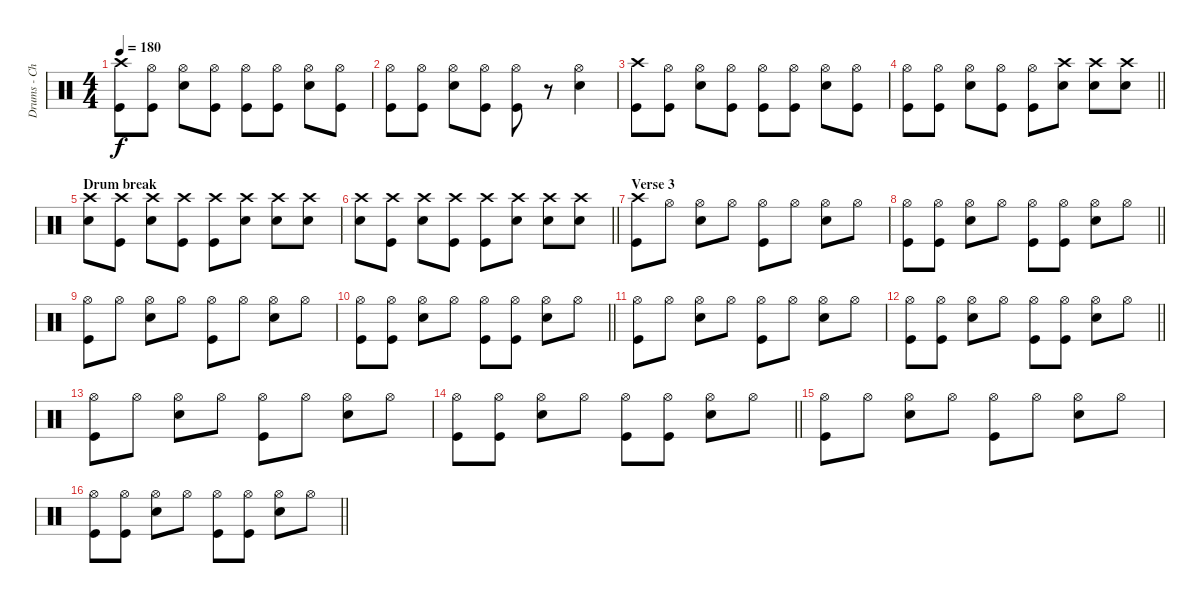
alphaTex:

\track ("Drums - Chris Dangerous" "Drums - Ch") {instrument percussion}
\staff {score}
\articulation defaults
\ts (4 4)
\tempo 180
\clef neutral
\ks c
("Crash high (hit)" "Kick (hit)").8{dy f} ("Hi-Hat (open)" "Kick (hit)").8 ("Hi-Hat (open)" "Snare (hit) 2").8 ("Hi-Hat (open)" "Kick (hit)").8 ("Hi-Hat (open)" "Kick (hit)").8 ("Hi-Hat (open)" "Kick (hit)").8 ("Hi-Hat (open)" "Snare (hit) 2").8 ("Hi-Hat (open)" "Kick (hit)").8 |
("Hi-Hat (open)" "Kick (hit)").8 ("Hi-Hat (open)" "Kick (hit)").8 ("Hi-Hat (open)" "Snare (hit) 2").8 ("Hi-Hat (open)" "Kick (hit)").8 ("Hi-Hat (open)" "Kick (hit)").8 r.8 ("Hi-Hat (open)" "Snare (hit) 2").4 |
("Crash high (hit)" "Kick (hit)").8 ("Hi-Hat (open)" "Kick (hit)").8 ("Hi-Hat (open)" "Snare (hit) 2").8 ("Hi-Hat (open)" "Kick (hit)").8 ("Hi-Hat (open)" "Kick (hit)").8 ("Hi-Hat (open)" "Kick (hit)").8 ("Hi-Hat (open)" "Snare (hit) 2").8 ("Hi-Hat (open)" "Kick (hit)").8 |
\barLineRight lightlight
("Hi-Hat (open)" "Kick (hit)").8 ("Hi-Hat (open)" "Kick (hit)").8 ("Hi-Hat (open)" "Snare (hit) 2").8 ("Hi-Hat (open)" "Kick (hit)").8 ("Hi-Hat (open)" "Kick (hit)").8 ("Crash high (hit)" "Snare (hit) 2").8 ("Crash high (hit)" "Snare (hit) 2").8 ("Crash high (hit)" "Snare (hit) 2").8 |
\section ("" "Drum break")
("Crash high (hit)" "Snare (hit) 2").8 ("Crash high (hit)" "Kick (hit)").8 ("Crash high (hit)" "Snare (hit) 2").8 ("Crash high (hit)" "Kick (hit)").8 ("Crash high (hit)" "Kick (hit)").8 ("Crash high (hit)" "Snare (hit) 2").8 ("Crash high (hit)" "Snare (hit) 2").8 ("Crash high (hit)" "Snare (hit) 2").8 |
\barLineRight lightlight
("Crash high (hit)" "Snare (hit) 2").8 ("Crash high (hit)" "Kick (hit)").8 ("Crash high (hit)" "Snare (hit) 2").8 ("Crash high (hit)" "Kick (hit)").8 ("Crash high (hit)" "Kick (hit)").8 ("Crash high (hit)" "Snare (hit) 2").8 ("Crash high (hit)" "Snare (hit) 2").8 ("Crash high (hit)" "Snare (hit) 2").8 |
\section ("" "Verse 3")
("Crash high (hit)" "Kick (hit)").8 "Hi-Hat (open)".8 ("Hi-Hat (open)" "Snare (hit) 2").8 "Hi-Hat (open)".8 ("Hi-Hat (open)" "Kick (hit)").8 "Hi-Hat (open)".8 ("Hi-Hat (open)" "Snare (hit) 2").8 "Hi-Hat (open)".8 |
\barLineRight lightlight
("Hi-Hat (open)" "Kick (hit)").8 ("Hi-Hat (open)" "Kick (hit)").8 ("Hi-Hat (open)" "Snare (hit) 2").8 "Hi-Hat (open)".8 ("Hi-Hat (open)" "Kick (hit)").8 ("Hi-Hat (open)" "Kick (hit)").8 ("Hi-Hat (open)" "Snare (hit) 2").8 "Hi-Hat (open)".8 |
("Hi-Hat (open)" "Kick (hit)").8 "Hi-Hat (open)".8 ("Hi-Hat (open)" "Snare (hit) 2").8 "Hi-Hat (open)".8 ("Hi-Hat (open)" "Kick (hit)").8 "Hi-Hat (open)".8 ("Hi-Hat (open)" "Snare (hit) 2").8 "Hi-Hat (open)".8 |
\barLineRight lightlight
("Hi-Hat (open)" "Kick (hit)").8 ("Hi-Hat (open)" "Kick (hit)").8 ("Hi-Hat (open)" "Snare (hit) 2").8 "Hi-Hat (open)".8 ("Hi-Hat (open)" "Kick (hit)").8 ("Hi-Hat (open)" "Kick (hit)").8 ("Hi-Hat (open)" "Snare (hit) 2").8 "Hi-Hat (open)".8 |
("Hi-Hat (open)" "Kick (hit)").8 "Hi-Hat (open)".8 ("Hi-Hat (open)" "Snare (hit) 2").8 "Hi-Hat (open)".8 ("Hi-Hat (open)" "Kick (hit)").8 "Hi-Hat (open)".8 ("Hi-Hat (open)" "Snare (hit) 2").8 "Hi-Hat (open)".8 |
\barLineRight lightlight
("Hi-Hat (open)" "Kick (hit)").8 ("Hi-Hat (open)" "Kick (hit)").8 ("Hi-Hat (open)" "Snare (hit) 2").8 "Hi-Hat (open)".8 ("Hi-Hat (open)" "Kick (hit)").8 ("Hi-Hat (open)" "Kick (hit)").8 ("Hi-Hat (open)" "Snare (hit) 2").8 "Hi-Hat (open)".8 |
("Hi-Hat (open)" "Kick (hit)").8 "Hi-Hat (open)".8 ("Hi-Hat (open)" "Snare (hit) 2").8 "Hi-Hat (open)".8 ("Hi-Hat (open)" "Kick (hit)").8 "Hi-Hat (open)".8 ("Hi-Hat (open)" "Snare (hit) 2").8 "Hi-Hat (open)".8 |
\barLineRight lightlight
("Hi-Hat (open)" "Kick (hit)").8 ("Hi-Hat (open)" "Kick (hit)").8 ("Hi-Hat (open)" "Snare (hit) 2").8 "Hi-Hat (open)".8 ("Hi-Hat (open)" "Kick (hit)").8 ("Hi-Hat (open)" "Kick (hit)").8 ("Hi-Hat (open)" "Snare (hit) 2").8 "Hi-Hat (open)".8 |
("Hi-Hat (open)" "Kick (hit)").8 "Hi-Hat (open)".8 ("Hi-Hat (open)" "Snare (hit) 2").8 "Hi-Hat (open)".8 ("Hi-Hat (open)" "Kick (hit)").8 "Hi-Hat (open)".8 ("Hi-Hat (open)" "Snare (hit) 2").8 "Hi-Hat (open)".8 |
\barLineRight lightlight
("Hi-Hat (open)" "Kick (hit)").8 ("Hi-Hat (open)" "Kick (hit)").8 ("Hi-Hat (open)" "Snare (hit) 2").8 "Hi-Hat (open)".8 ("Hi-Hat (open)" "Kick (hit)").8 ("Hi-Hat (open)" "Kick (hit)").8 ("Hi-Hat (open)" "Snare (hit) 2").8 "Hi-Hat (open)".8
